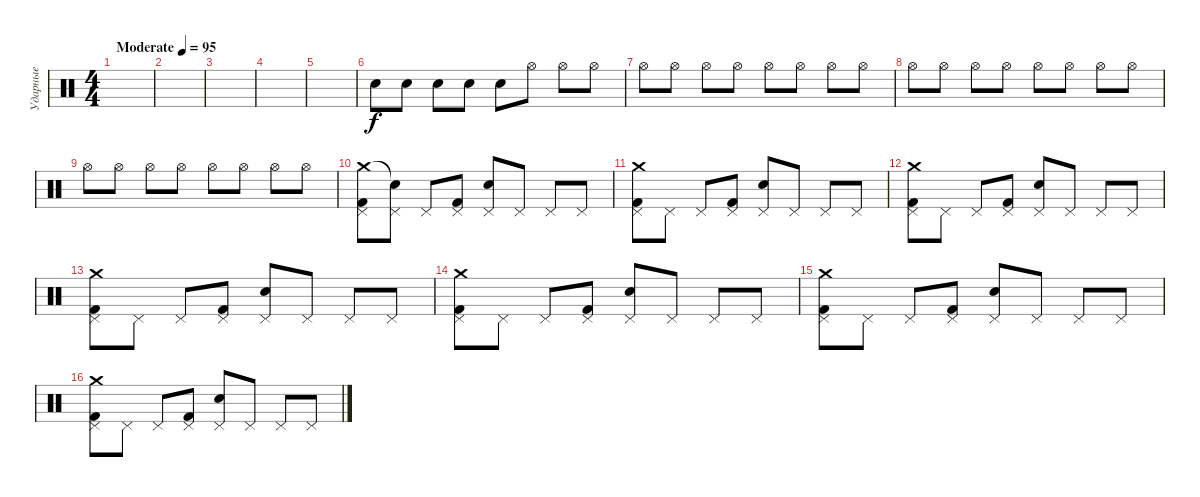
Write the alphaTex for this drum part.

\track ("Ударные" "Ударные") {instrument percussion}
\staff {score}
\articulation defaults
\ts (4 4)
\tempo (95 "Moderate")
\clef neutral
\ks c
|
|
|
|
|
"Snare (hit)".8 "Snare (hit)".8 "Snare (hit)".8 "Snare (hit)".8 "Snare (hit)".8 "Hi-Hat (open)".8{volume 1} "Hi-Hat (open)".8{volume 2} "Hi-Hat (open)".8 |
"Hi-Hat (open)".8{volume 3} "Hi-Hat (open)".8{volume 4} "Hi-Hat (open)".8{volume 5} "Hi-Hat (open)".8{volume 6} "Hi-Hat (open)".8{volume 7} "Hi-Hat (open)".8{volume 8} "Hi-Hat (open)".8{volume 9} "Hi-Hat (open)".8{volume 10} |
"Hi-Hat (open)".8 "Hi-Hat (open)".8 "Hi-Hat (open)".8 "Hi-Hat (open)".8 "Hi-Hat (open)".8 "Hi-Hat (open)".8 "Hi-Hat (open)".8 "Hi-Hat (open)".8 |
"Hi-Hat (open)".8{volume 10} "Hi-Hat (open)".8{volume 9} "Hi-Hat (open)".8{volume 8} "Hi-Hat (open)".8{volume 7} "Hi-Hat (open)".8{volume 6} "Hi-Hat (open)".8{volume 5} "Hi-Hat (open)".8{volume 4} "Hi-Hat (open)".8{volume 3} |
("Crash medium (hit)" "Pedal Hi-Hat (hit)" "Kick (hit) 2").8{volume 14} ("Snare (hit)"{t} "Pedal Hi-Hat (hit)").8 "Pedal Hi-Hat (hit)".8 ("Pedal Hi-Hat (hit)" "Kick (hit) 2").8 ("Pedal Hi-Hat (hit)" "Electric Snare (hit)").8 "Pedal Hi-Hat (hit)".8 "Pedal Hi-Hat (hit)".8 "Pedal Hi-Hat (hit)".8 |
("Crash medium (hit)" "Pedal Hi-Hat (hit)" "Kick (hit) 2").8 "Pedal Hi-Hat (hit)".8 "Pedal Hi-Hat (hit)".8 ("Pedal Hi-Hat (hit)" "Kick (hit) 2").8 ("Pedal Hi-Hat (hit)" "Electric Snare (hit)").8 "Pedal Hi-Hat (hit)".8 "Pedal Hi-Hat (hit)".8 "Pedal Hi-Hat (hit)".8 |
("Crash medium (hit)" "Pedal Hi-Hat (hit)" "Kick (hit) 2").8 "Pedal Hi-Hat (hit)".8 "Pedal Hi-Hat (hit)".8 ("Pedal Hi-Hat (hit)" "Kick (hit) 2").8 ("Pedal Hi-Hat (hit)" "Electric Snare (hit)").8 "Pedal Hi-Hat (hit)".8 "Pedal Hi-Hat (hit)".8 "Pedal Hi-Hat (hit)".8 |
("Crash medium (hit)" "Pedal Hi-Hat (hit)" "Kick (hit) 2").8 "Pedal Hi-Hat (hit)".8 "Pedal Hi-Hat (hit)".8 ("Pedal Hi-Hat (hit)" "Kick (hit) 2").8 ("Pedal Hi-Hat (hit)" "Electric Snare (hit)").8 "Pedal Hi-Hat (hit)".8 "Pedal Hi-Hat (hit)".8 "Pedal Hi-Hat (hit)".8 |
("Crash medium (hit)" "Pedal Hi-Hat (hit)" "Kick (hit) 2").8 "Pedal Hi-Hat (hit)".8 "Pedal Hi-Hat (hit)".8 ("Pedal Hi-Hat (hit)" "Kick (hit) 2").8 ("Pedal Hi-Hat (hit)" "Electric Snare (hit)").8 "Pedal Hi-Hat (hit)".8 "Pedal Hi-Hat (hit)".8 "Pedal Hi-Hat (hit)".8 |
("Crash medium (hit)" "Pedal Hi-Hat (hit)" "Kick (hit) 2").8 "Pedal Hi-Hat (hit)".8 "Pedal Hi-Hat (hit)".8 ("Pedal Hi-Hat (hit)" "Kick (hit) 2").8 ("Pedal Hi-Hat (hit)" "Electric Snare (hit)").8 "Pedal Hi-Hat (hit)".8 "Pedal Hi-Hat (hit)".8 "Pedal Hi-Hat (hit)".8 |
("Crash medium (hit)" "Pedal Hi-Hat (hit)" "Kick (hit) 2").8 "Pedal Hi-Hat (hit)".8 "Pedal Hi-Hat (hit)".8 ("Pedal Hi-Hat (hit)" "Kick (hit) 2").8 ("Pedal Hi-Hat (hit)" "Electric Snare (hit)").8 "Pedal Hi-Hat (hit)".8 "Pedal Hi-Hat (hit)".8 "Pedal Hi-Hat (hit)".8
